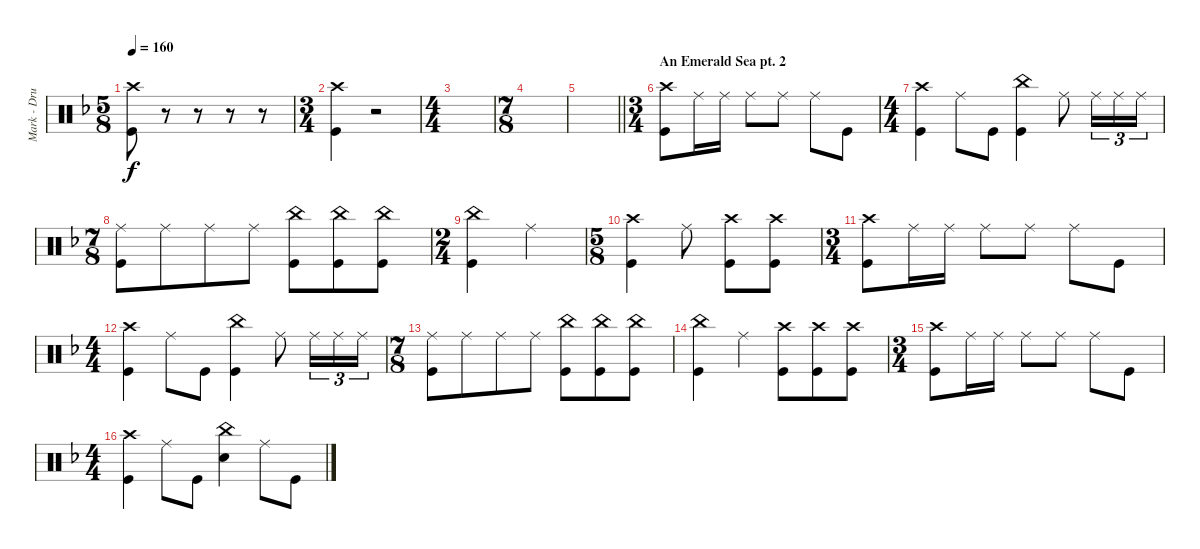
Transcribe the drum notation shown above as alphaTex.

\track ("Mark - Drums" "Mark - Dru") {instrument percussion}
\staff {score}
\articulation defaults
\ts (5 8)
\tempo 160
\clef neutral
\ks dminor
("Kick (hit)" "Crash high (hit)").8{dy f} r.8 r.8 r.8 r.8 |
\ts (3 4)
("Kick (hit)" "Crash high (hit)").4 r.2 |
\ts (4 4)
|
\ts (7 8)
|
\barLineRight lightlight
|
\ts (3 4)
\section ("" "An Emerald Sea pt. 2")
("Crash high (hit)" "Kick (hit)").8 "Ride (middle)".16 "Ride (middle)".16 "Ride (middle)".8 "Ride (middle)".8 "Ride (middle)".8 "Kick (hit)".8 |
\ts (4 4)
("Kick (hit)" "Crash high (hit)").4 "Ride (middle)".8 "Kick (hit)".8 ("China (hit)" "Kick (hit)").4 "Ride (middle)".8 "Ride (middle)".16{tu (3 2)} "Ride (middle)".16{tu (3 2)} "Ride (middle)".16{tu (3 2)} |
\ts (7 8)
("Kick (hit)" "Ride (middle)").8 "Ride (middle)".8 "Ride (middle)".8 "Ride (middle)".8 ("China (hit)" "Kick (hit)").8 ("China (hit)" "Kick (hit)").8 ("China (hit)" "Kick (hit)").8 |
\ts (2 4)
("China (hit)" "Kick (hit)").4 "Ride (middle)".4 |
\ts (5 8)
("Crash high (hit)" "Kick (hit)").4 "Ride (middle)".8 ("Crash high (hit)" "Kick (hit)").8 ("Crash high (hit)" "Kick (hit)").8 |
\ts (3 4)
("Crash high (hit)" "Kick (hit)").8 "Ride (middle)".16 "Ride (middle)".16 "Ride (middle)".8 "Ride (middle)".8 "Ride (middle)".8 "Kick (hit)".8 |
\ts (4 4)
("Kick (hit)" "Crash high (hit)").4 "Ride (middle)".8 "Kick (hit)".8 ("China (hit)" "Kick (hit)").4 "Ride (middle)".8 "Ride (middle)".16{tu (3 2)} "Ride (middle)".16{tu (3 2)} "Ride (middle)".16{tu (3 2)} |
\ts (7 8)
("Kick (hit)" "Ride (middle)").8 "Ride (middle)".8 "Ride (middle)".8 "Ride (middle)".8 ("China (hit)" "Kick (hit)").8 ("China (hit)" "Kick (hit)").8 ("China (hit)" "Kick (hit)").8 |
("Kick (hit)" "China (hit)").4 "Ride (middle)".4 ("Crash high (hit)" "Kick (hit)").8 ("Crash high (hit)" "Kick (hit)").8 ("Crash high (hit)" "Kick (hit)").8 |
\ts (3 4)
("Crash high (hit)" "Kick (hit)").8 "Ride (middle)".16 "Ride (middle)".16 "Ride (middle)".8 "Ride (middle)".8 "Ride (middle)".8 "Kick (hit)".8 |
\ts (4 4)
("Kick (hit)" "Crash high (hit)").4 "Ride (middle)".8 "Kick (hit)".8 ("China (hit)" "Snare (hit) 2").4 "Ride (middle)".8 "Kick (hit)".8
